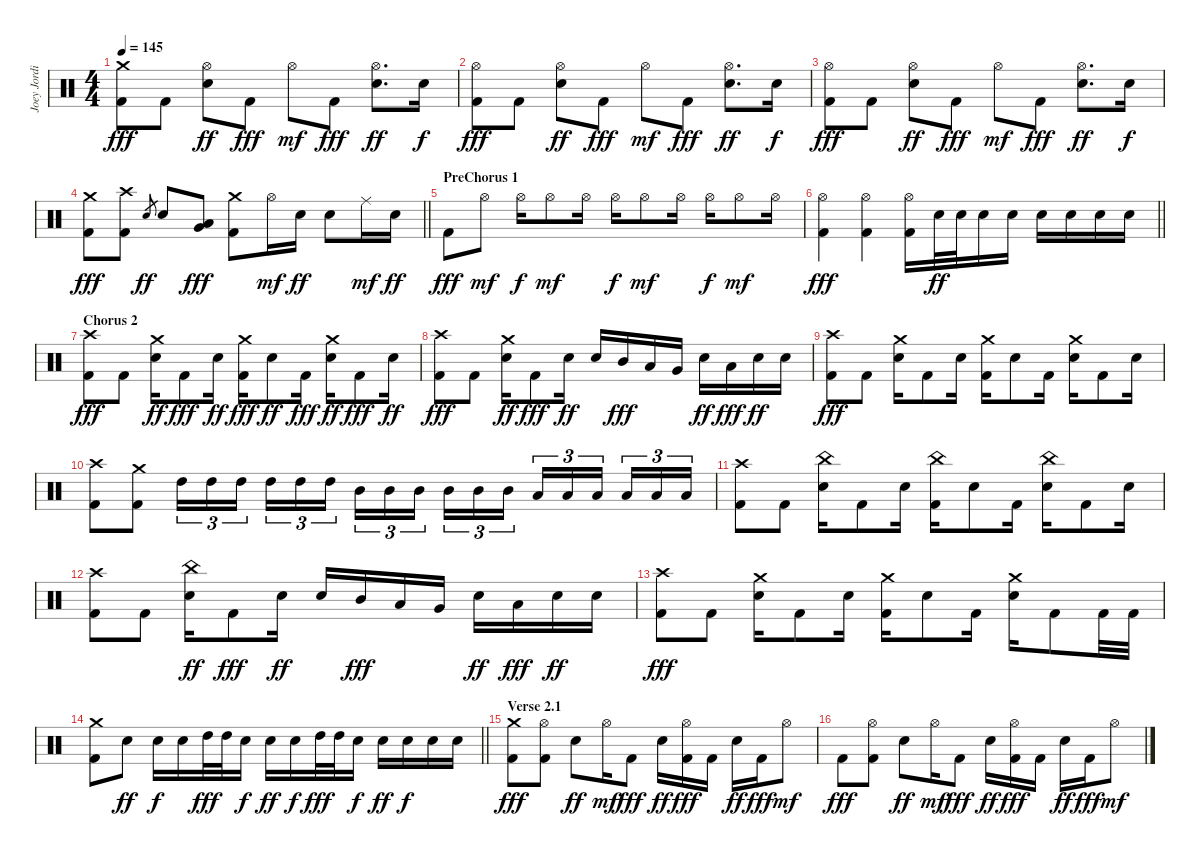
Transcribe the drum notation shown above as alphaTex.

\track ("Joey Jordison" "Joey Jordi") {instrument percussion}
\staff {score}
\articulation defaults
\ts (4 4)
\tempo 145
\clef neutral
\ks c
("Crash medium (hit)" "Kick (hit) 2").8{dy fff} "Kick (hit) 2".8 ("Hi-Hat (open)" "Electric Snare (hit)").8{dy ff} "Kick (hit) 2".8{dy fff} "Hi-Hat (open)".8{dy mf} "Kick (hit) 2".8{dy fff} ("Hi-Hat (open)" "Electric Snare (hit)").8{d dy ff} "Electric Snare (hit)".16{dy f} |
("Hi-Hat (open)" "Kick (hit) 2").8{dy fff} "Kick (hit) 2".8 ("Hi-Hat (open)" "Electric Snare (hit)").8{dy ff} "Kick (hit) 2".8{dy fff} "Hi-Hat (open)".8{dy mf} "Kick (hit) 2".8{dy fff} ("Hi-Hat (open)" "Electric Snare (hit)").8{d dy ff} "Electric Snare (hit)".16{dy f} |
("Hi-Hat (open)" "Kick (hit) 2").8{dy fff} "Kick (hit) 2".8 ("Hi-Hat (open)" "Electric Snare (hit)").8{dy ff} "Kick (hit) 2".8{dy fff} "Hi-Hat (open)".8{dy mf} "Kick (hit) 2".8{dy fff} ("Hi-Hat (open)" "Electric Snare (hit)").8{d dy ff} "Electric Snare (hit)".16{dy f} |
\barLineRight lightlight
("Crash medium (hit)" "Kick (hit) 2").8{dy fff} ("Crash high (hit)" "Kick (hit) 2").8 "Electric Snare (hit)".8{gr dy ff} "Electric Snare (hit)".8 ("Low Tom (hit)" "Very Low Tom (hit)").8{dy fff} ("Crash medium (hit)" "Kick (hit) 2").8 "Hi-Hat (open)".16{dy mf} "Electric Snare (hit)".16{dy ff} "Electric Snare (hit)".8 "Ride (middle)".16{dy mf} "Electric Snare (hit)".16{dy ff} |
\section ("" "PreChorus 1")
"Kick (hit) 2".8{dy fff} "Hi-Hat (open)".8{dy mf} "Hi-Hat (open)".16{dy f} "Hi-Hat (open)".8{dy mf} "Hi-Hat (open)".16 "Hi-Hat (open)".16{dy f} "Hi-Hat (open)".8{dy mf} "Hi-Hat (open)".16 "Hi-Hat (open)".16{dy f} "Hi-Hat (open)".8{dy mf} "Hi-Hat (open)".16 |
\barLineRight lightlight
("Hi-Hat (open)" "Kick (hit) 2").4{dy fff} ("Hi-Hat (open)" "Kick (hit) 2").4 ("Hi-Hat (open)" "Kick (hit) 2").16 "Electric Snare (hit)".32{dy ff} "Electric Snare (hit)".32 "Electric Snare (hit)".16 "Electric Snare (hit)".16 "Electric Snare (hit)".16 "Electric Snare (hit)".16 "Electric Snare (hit)".16 "Electric Snare (hit)".16 |
\section ("" "Chorus 2")
("Crash high (hit)" "Kick (hit) 2").8{dy fff} "Kick (hit) 2".8 ("Crash medium (hit)" "Electric Snare (hit)").16{dy ff} "Kick (hit) 2".8{dy fff} "Electric Snare (hit)".16{dy ff} ("Crash medium (hit)" "Kick (hit) 2").16{dy fff} "Electric Snare (hit)".8{dy ff} "Kick (hit) 2".16{dy fff} ("Crash medium (hit)" "Electric Snare (hit)").16{dy ff} "Kick (hit) 2".8{dy fff} "Electric Snare (hit)".16{dy ff} |
("Crash high (hit)" "Kick (hit) 2").8{dy fff} "Kick (hit) 2".8 ("Crash medium (hit)" "Electric Snare (hit)").16{dy ff} "Kick (hit) 2".8{dy fff} "Electric Snare (hit)".16{dy ff} "Electric Snare (hit)".16 "Mid Tom (hit)".16{dy fff} "Low Tom (hit)".16 "Very Low Tom (hit)".16 "Electric Snare (hit)".16{dy ff} "Low Tom (hit)".16{dy fff} "Electric Snare (hit)".16{dy ff} "Electric Snare (hit)".16 |
("Crash high (hit)" "Kick (hit) 2").8{dy fff} "Kick (hit) 2".8 ("Crash medium (hit)" "Electric Snare (hit)").16 "Kick (hit) 2".8 "Electric Snare (hit)".16 ("Crash medium (hit)" "Kick (hit) 2").16 "Electric Snare (hit)".8 "Kick (hit) 2".16 ("Crash medium (hit)" "Electric Snare (hit)").16 "Kick (hit) 2".8 "Electric Snare (hit)".16 |
("Crash high (hit)" "Kick (hit) 2").8 ("Crash medium (hit)" "Kick (hit) 2").8 "High Tom (hit)".16{tu (3 2)} "High Tom (hit)".16{tu (3 2)} "High Tom (hit)".16{tu (3 2) beam splitsecondary} "High Tom (hit)".16{tu (3 2)} "High Tom (hit)".16{tu (3 2)} "High Tom (hit)".16{tu (3 2)} "Mid Tom (hit)".16{tu (3 2)} "Mid Tom (hit)".16{tu (3 2)} "Mid Tom (hit)".16{tu (3 2) beam splitsecondary} "Mid Tom (hit)".16{tu (3 2)} "Mid Tom (hit)".16{tu (3 2)} "Mid Tom (hit)".16{tu (3 2)} "Low Tom (hit)".16{tu (3 2)} "Low Tom (hit)".16{tu (3 2)} "Low Tom (hit)".16{tu (3 2) beam splitsecondary} "Low Tom (hit)".16{tu (3 2)} "Low Tom (hit)".16{tu (3 2)} "Low Tom (hit)".16{tu (3 2)} |
("Crash high (hit)" "Kick (hit) 2").8 "Kick (hit) 2".8 ("China (hit)" "Electric Snare (hit)").16 "Kick (hit) 2".8 "Electric Snare (hit)".16 ("China (hit)" "Kick (hit) 2").16 "Electric Snare (hit)".8 "Kick (hit) 2".16 ("China (hit)" "Electric Snare (hit)").16 "Kick (hit) 2".8 "Electric Snare (hit)".16 |
("Crash high (hit)" "Kick (hit) 2").8 "Kick (hit) 2".8 ("China (hit)" "Electric Snare (hit)").16{dy ff} "Kick (hit) 2".8{dy fff} "Electric Snare (hit)".16{dy ff} "Electric Snare (hit)".16 "Mid Tom (hit)".16{dy fff} "Low Tom (hit)".16 "Very Low Tom (hit)".16 "Electric Snare (hit)".16{dy ff} "Low Tom (hit)".16{dy fff} "Electric Snare (hit)".16{dy ff} "Electric Snare (hit)".16 |
("Crash high (hit)" "Kick (hit) 2").8{dy fff} "Kick (hit) 2".8 ("Crash medium (hit)" "Electric Snare (hit)").16 "Kick (hit) 2".8 "Electric Snare (hit)".16 ("Crash medium (hit)" "Kick (hit) 2").16 "Electric Snare (hit)".8 "Kick (hit) 2".16 ("Crash medium (hit)" "Electric Snare (hit)").16 "Kick (hit) 2".8 "Kick (hit) 2".32 "Kick (hit) 2".32 |
\barLineRight lightlight
("Crash medium (hit)" "Kick (hit) 2").8 "Electric Snare (hit)".8{dy ff} "Electric Snare (hit)".16{dy f} "Electric Snare (hit)".16 "High Tom (hit)".32{dy fff} "High Tom (hit)".32 "Electric Snare (hit)".16{dy f} "Electric Snare (hit)".16{dy ff} "Electric Snare (hit)".16{dy f} "High Tom (hit)".32{dy fff} "High Tom (hit)".32 "Electric Snare (hit)".16{dy f} "Electric Snare (hit)".16{dy ff} "Electric Snare (hit)".16{dy f} "Electric Snare (hit)".16 "Electric Snare (hit)".16 |
\section ("" "Verse 2.1")
("Crash medium (hit)" "Kick (hit) 2").8{dy fff} ("Hi-Hat (open)" "Kick (hit) 2").8 "Electric Snare (hit)".8{dy ff} "Hi-Hat (open)".16{dy mf} "Kick (hit) 2".8{dy fff} "Electric Snare (hit)".16{dy ff} ("Hi-Hat (open)" "Kick (hit) 2").16{dy fff} "Kick (hit) 2".16 "Electric Snare (hit)".16{dy ff} "Kick (hit) 2".16{dy fff} "Hi-Hat (open)".8{dy mf} |
"Kick (hit) 2".8{dy fff} ("Hi-Hat (open)" "Kick (hit) 2").8 "Electric Snare (hit)".8{dy ff} "Hi-Hat (open)".16{dy mf} "Kick (hit) 2".8{dy fff} "Electric Snare (hit)".16{dy ff} ("Hi-Hat (open)" "Kick (hit) 2").16{dy fff} "Kick (hit) 2".16 "Electric Snare (hit)".16{dy ff} "Kick (hit) 2".16{dy fff} "Hi-Hat (open)".8{dy mf}
